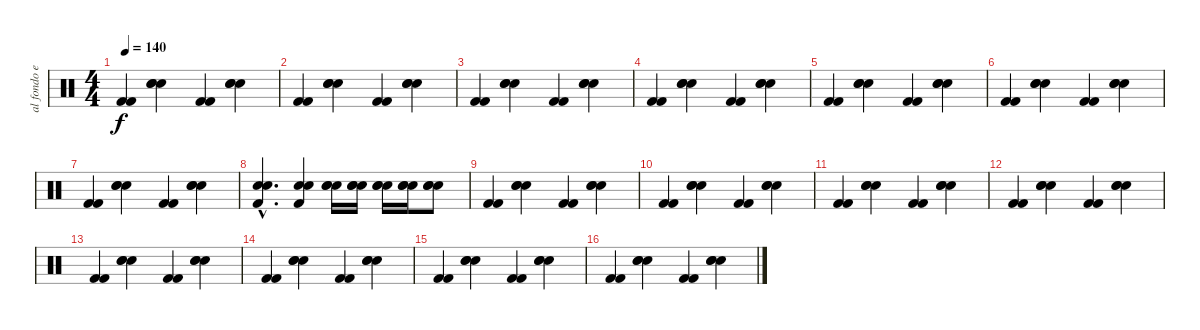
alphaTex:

\track ("al fondo en la bateria Mr Pedro Andreu" "al fondo e") {instrument percussion}
\staff {score}
\articulation defaults
\ts (4 4)
\tempo 140
\clef neutral
\ks c
("Kick (hit) 2" "Kick (hit) 2").4{dy f} ("Snare (hit) 2" "Snare (hit) 2" "Snare (hit) 2").4 ("Kick (hit) 2" "Kick (hit) 2").4 ("Snare (hit) 2" "Snare (hit) 2" "Snare (hit) 2").4 |
("Kick (hit) 2" "Kick (hit) 2").4 ("Snare (hit) 2" "Snare (hit) 2" "Snare (hit) 2").4 ("Kick (hit) 2" "Kick (hit) 2").4 ("Snare (hit) 2" "Snare (hit) 2" "Snare (hit) 2").4 |
("Kick (hit) 2" "Kick (hit) 2").4 ("Snare (hit) 2" "Snare (hit) 2" "Snare (hit) 2").4 ("Kick (hit) 2" "Kick (hit) 2").4 ("Snare (hit) 2" "Snare (hit) 2" "Snare (hit) 2").4 |
("Kick (hit) 2" "Kick (hit) 2").4 ("Snare (hit) 2" "Snare (hit) 2" "Snare (hit) 2").4 ("Kick (hit) 2" "Kick (hit) 2").4 ("Snare (hit) 2" "Snare (hit) 2" "Snare (hit) 2").4 |
("Kick (hit) 2" "Kick (hit) 2").4 ("Snare (hit) 2" "Snare (hit) 2" "Snare (hit) 2").4 ("Kick (hit) 2" "Kick (hit) 2").4 ("Snare (hit) 2" "Snare (hit) 2" "Snare (hit) 2").4 |
("Kick (hit) 2" "Kick (hit) 2").4 ("Snare (hit) 2" "Snare (hit) 2" "Snare (hit) 2").4 ("Kick (hit) 2" "Kick (hit) 2").4 ("Snare (hit) 2" "Snare (hit) 2" "Snare (hit) 2").4 |
("Kick (hit) 2" "Kick (hit) 2").4 ("Snare (hit) 2" "Snare (hit) 2" "Snare (hit) 2").4 ("Kick (hit) 2" "Kick (hit) 2").4 ("Snare (hit) 2" "Snare (hit) 2" "Snare (hit) 2").4 |
("Snare (hit) 2"{hac} "Snare (hit) 2"{hac} "Kick (hit) 2"{hac}).4{d} ("Snare (hit) 2" "Snare (hit) 2" "Kick (hit) 2").4 ("Snare (hit) 2" "Snare (hit) 2" "Snare (hit) 2").16 ("Snare (hit) 2" "Snare (hit) 2" "Snare (hit) 2").16 ("Snare (hit) 2" "Snare (hit) 2" "Snare (hit) 2").16 ("Snare (hit) 2" "Snare (hit) 2" "Snare (hit) 2").16 ("Snare (hit) 2" "Snare (hit) 2" "Snare (hit) 2").8 |
("Kick (hit) 2" "Kick (hit) 2").4 ("Snare (hit) 2" "Snare (hit) 2" "Snare (hit) 2").4 ("Kick (hit) 2" "Kick (hit) 2").4 ("Snare (hit) 2" "Snare (hit) 2" "Snare (hit) 2").4 |
("Kick (hit) 2" "Kick (hit) 2").4 ("Snare (hit) 2" "Snare (hit) 2" "Snare (hit) 2").4 ("Kick (hit) 2" "Kick (hit) 2").4 ("Snare (hit) 2" "Snare (hit) 2" "Snare (hit) 2").4 |
("Kick (hit) 2" "Kick (hit) 2").4 ("Snare (hit) 2" "Snare (hit) 2" "Snare (hit) 2").4 ("Kick (hit) 2" "Kick (hit) 2").4 ("Snare (hit) 2" "Snare (hit) 2" "Snare (hit) 2").4 |
("Kick (hit) 2" "Kick (hit) 2").4 ("Snare (hit) 2" "Snare (hit) 2" "Snare (hit) 2").4 ("Kick (hit) 2" "Kick (hit) 2").4 ("Snare (hit) 2" "Snare (hit) 2" "Snare (hit) 2").4 |
("Kick (hit) 2" "Kick (hit) 2").4 ("Snare (hit) 2" "Snare (hit) 2" "Snare (hit) 2").4 ("Kick (hit) 2" "Kick (hit) 2").4 ("Snare (hit) 2" "Snare (hit) 2" "Snare (hit) 2").4 |
("Kick (hit) 2" "Kick (hit) 2").4 ("Snare (hit) 2" "Snare (hit) 2" "Snare (hit) 2").4 ("Kick (hit) 2" "Kick (hit) 2").4 ("Snare (hit) 2" "Snare (hit) 2" "Snare (hit) 2").4 |
("Kick (hit) 2" "Kick (hit) 2").4 ("Snare (hit) 2" "Snare (hit) 2" "Snare (hit) 2").4 ("Kick (hit) 2" "Kick (hit) 2").4 ("Snare (hit) 2" "Snare (hit) 2" "Snare (hit) 2").4 |
("Kick (hit) 2" "Kick (hit) 2").4 ("Snare (hit) 2" "Snare (hit) 2" "Snare (hit) 2").4 ("Kick (hit) 2" "Kick (hit) 2").4 ("Snare (hit) 2" "Snare (hit) 2" "Snare (hit) 2").4
